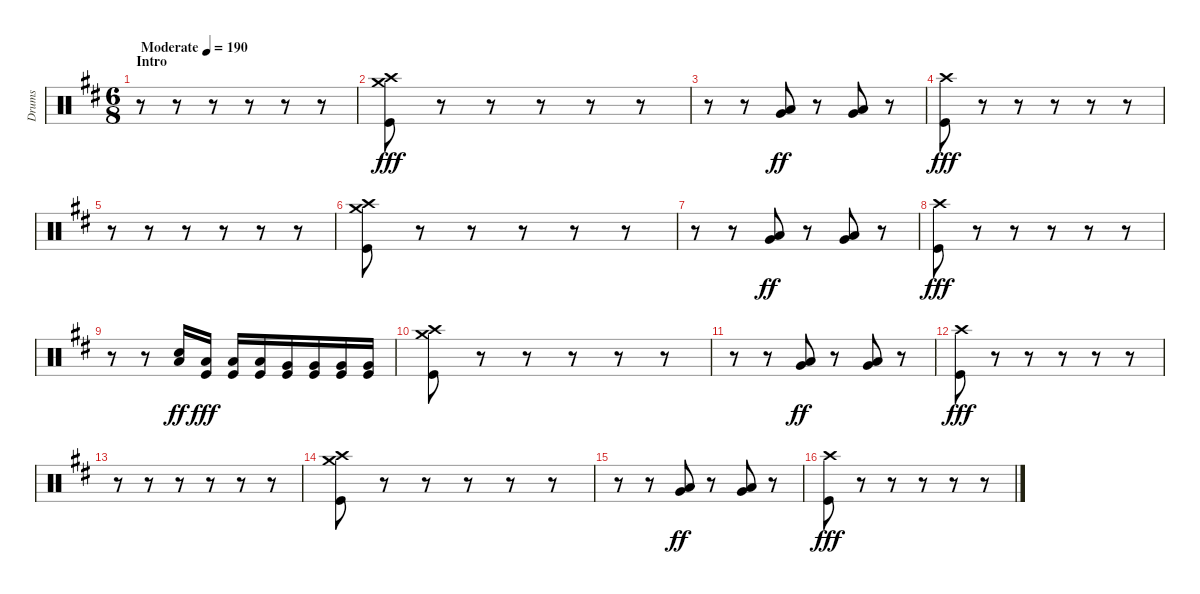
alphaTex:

\track ("Drums" "Drums") {instrument percussion}
\staff {score}
\articulation defaults
\ts (6 8)
\section ("" "Intro")
\tempo (190 "Moderate")
\clef neutral
\ks bminor
r.8{dy fff} r.8 r.8 r.8 r.8 r.8 |
("Crash high (hit)" "Crash medium (hit)" "Kick (hit)").8 r.8 r.8 r.8 r.8 r.8 |
r.8 r.8 ("Very Low Tom (hit)" "Low Floor Tom (hit)").8{dy ff} r.8 ("Very Low Tom (hit)" "Low Floor Tom (hit)").8 r.8 |
("Crash high (hit)" "Kick (hit)").8{dy fff} r.8 r.8 r.8 r.8 r.8 |
r.8 r.8 r.8 r.8 r.8 r.8 |
("Crash high (hit)" "Crash medium (hit)" "Kick (hit)").8 r.8 r.8 r.8 r.8 r.8 |
r.8 r.8 ("Very Low Tom (hit)" "Low Floor Tom (hit)").8{dy ff} r.8 ("Very Low Tom (hit)" "Low Floor Tom (hit)").8 r.8 |
("Crash high (hit)" "Kick (hit)").8{dy fff} r.8 r.8 r.8 r.8 r.8 |
r.8 r.8 ("Low Tom (hit)" "Snare (hit) 2").16{dy ff} ("Low Tom (hit)" "Kick (hit)").16{dy fff} ("Low Tom (hit)" "Kick (hit)").16 ("Low Tom (hit)" "Kick (hit)").16 ("Very Low Tom (hit)" "Kick (hit)").16 ("Very Low Tom (hit)" "Kick (hit)").16 ("Very Low Tom (hit)" "Kick (hit)").16 ("Very Low Tom (hit)" "Kick (hit)").16 |
("Crash high (hit)" "Crash medium (hit)" "Kick (hit)").8 r.8 r.8 r.8 r.8 r.8 |
r.8 r.8 ("Very Low Tom (hit)" "Low Floor Tom (hit)").8{dy ff} r.8 ("Very Low Tom (hit)" "Low Floor Tom (hit)").8 r.8 |
("Crash high (hit)" "Kick (hit)").8{dy fff} r.8 r.8 r.8 r.8 r.8 |
r.8 r.8 r.8 r.8 r.8 r.8 |
("Crash high (hit)" "Crash medium (hit)" "Kick (hit)").8 r.8 r.8 r.8 r.8 r.8 |
r.8 r.8 ("Very Low Tom (hit)" "Low Floor Tom (hit)").8{dy ff} r.8 ("Very Low Tom (hit)" "Low Floor Tom (hit)").8 r.8 |
("Crash high (hit)" "Kick (hit)").8{dy fff} r.8 r.8 r.8 r.8 r.8
